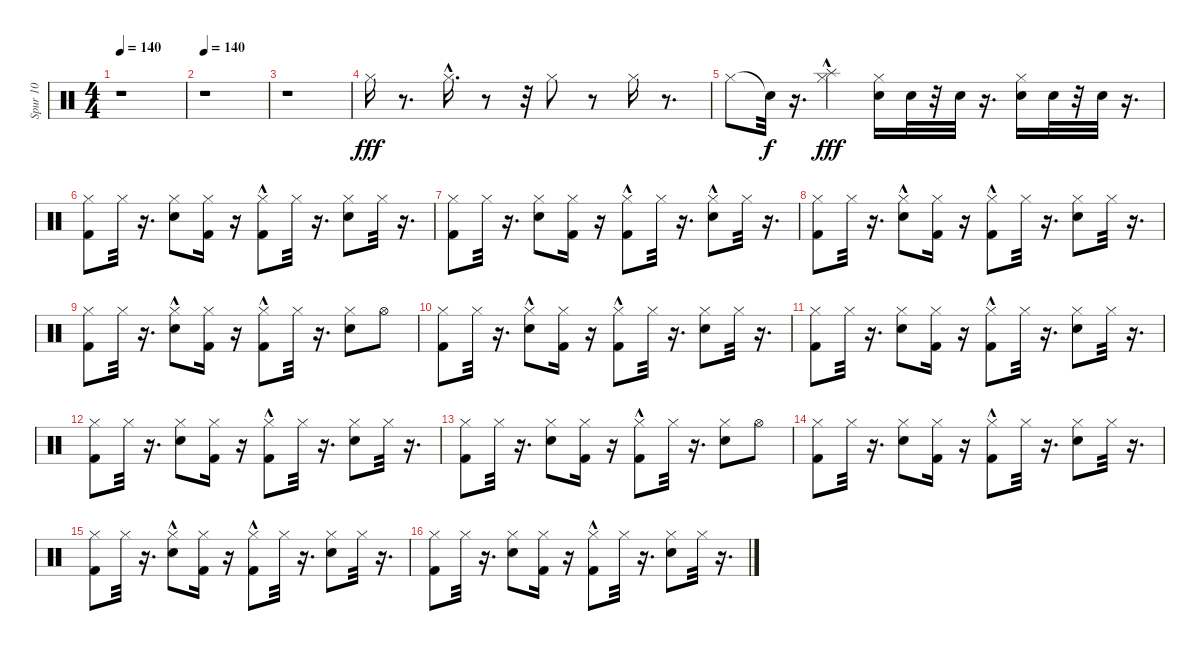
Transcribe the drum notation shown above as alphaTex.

\track ("Spur 10" "Spur 10") {instrument percussion}
\staff {score}
\articulation defaults
\ts (4 4)
\tempo 140
\clef neutral
\ks c
r.1{dy fff} |
\tempo 140
r.1 |
r.1 |
"Hi-Hat (closed)".16 r.8{d} "Hi-Hat (closed)"{hac}.16{d} r.8 r.32 "Hi-Hat (closed)".8 r.8 "Hi-Hat (closed)".16 r.8{d} |
"Hi-Hat (closed)".8 "Snare (hit)"{t}.32{dy f} r.16{d} ("Hi-Hat (closed)" "Splash (hit)"{hac}).4{dy fff} ("Snare (hit) 2" "Hi-Hat (closed)").16 "Snare (hit) 2".32 r.32 "Snare (hit) 2".32 r.16{d} ("Snare (hit) 2" "Hi-Hat (closed)").16 "Snare (hit) 2".32 r.32 "Snare (hit) 2".32 r.16{d} |
("Kick (hit) 2" "Hi-Hat (closed)").8 "Hi-Hat (closed)".32 r.16{d} ("Snare (hit) 2" "Hi-Hat (closed)").8 ("Kick (hit) 2" "Hi-Hat (closed)").16 r.16 ("Kick (hit) 2"{hac} "Hi-Hat (closed)").8 "Hi-Hat (closed)".32 r.16{d} ("Snare (hit) 2" "Hi-Hat (closed)").8 "Hi-Hat (closed)".32 r.16{d} |
("Kick (hit) 2" "Hi-Hat (closed)").8 "Hi-Hat (closed)".32 r.16{d} ("Snare (hit) 2" "Hi-Hat (closed)").8 ("Kick (hit) 2" "Hi-Hat (closed)").16 r.16 ("Kick (hit) 2"{hac} "Hi-Hat (closed)").8 "Hi-Hat (closed)".32 r.16{d} ("Snare (hit) 2"{hac} "Hi-Hat (closed)").8 "Hi-Hat (closed)".32 r.16{d} |
("Kick (hit) 2" "Hi-Hat (closed)").8 "Hi-Hat (closed)".32 r.16{d} ("Snare (hit) 2"{hac} "Hi-Hat (closed)").8 ("Kick (hit) 2" "Hi-Hat (closed)").16 r.16 ("Kick (hit) 2"{hac} "Hi-Hat (closed)").8 "Hi-Hat (closed)".32 r.16{d} ("Snare (hit) 2" "Hi-Hat (closed)").8 "Hi-Hat (closed)".32 r.16{d} |
("Kick (hit) 2" "Hi-Hat (closed)").8 "Hi-Hat (closed)".32 r.16{d} ("Snare (hit) 2"{hac} "Hi-Hat (closed)").8 ("Kick (hit) 2" "Hi-Hat (closed)").16 r.16 ("Kick (hit) 2"{hac} "Hi-Hat (closed)").8 "Hi-Hat (closed)".32 r.16{d} ("Snare (hit) 2" "Hi-Hat (closed)").8 "Hi-Hat (open)".8 |
("Kick (hit) 2" "Hi-Hat (closed)").8 "Hi-Hat (closed)".32 r.16{d} ("Snare (hit) 2"{hac} "Hi-Hat (closed)").8 ("Kick (hit) 2" "Hi-Hat (closed)").16 r.16 ("Kick (hit) 2"{hac} "Hi-Hat (closed)").8 "Hi-Hat (closed)".32 r.16{d} ("Snare (hit) 2" "Hi-Hat (closed)").8 "Hi-Hat (closed)".32 r.16{d} |
("Kick (hit) 2" "Hi-Hat (closed)").8 "Hi-Hat (closed)".32 r.16{d} ("Snare (hit) 2" "Hi-Hat (closed)").8 ("Kick (hit) 2" "Hi-Hat (closed)").16 r.16 ("Kick (hit) 2"{hac} "Hi-Hat (closed)").8 "Hi-Hat (closed)".32 r.16{d} ("Snare (hit) 2" "Hi-Hat (closed)").8 "Hi-Hat (closed)".32 r.16{d} |
("Kick (hit) 2" "Hi-Hat (closed)").8 "Hi-Hat (closed)".32 r.16{d} ("Snare (hit) 2" "Hi-Hat (closed)").8 ("Kick (hit) 2" "Hi-Hat (closed)").16 r.16 ("Kick (hit) 2"{hac} "Hi-Hat (closed)").8 "Hi-Hat (closed)".32 r.16{d} ("Snare (hit) 2" "Hi-Hat (closed)").8 "Hi-Hat (closed)".32 r.16{d} |
("Kick (hit) 2" "Hi-Hat (closed)").8 "Hi-Hat (closed)".32 r.16{d} ("Snare (hit) 2" "Hi-Hat (closed)").8 ("Kick (hit) 2" "Hi-Hat (closed)").16 r.16 ("Kick (hit) 2"{hac} "Hi-Hat (closed)").8 "Hi-Hat (closed)".32 r.16{d} ("Snare (hit) 2" "Hi-Hat (closed)").8 "Hi-Hat (open)".8 |
("Kick (hit) 2" "Hi-Hat (closed)").8 "Hi-Hat (closed)".32 r.16{d} ("Snare (hit) 2" "Hi-Hat (closed)").8 ("Kick (hit) 2" "Hi-Hat (closed)").16 r.16 ("Kick (hit) 2"{hac} "Hi-Hat (closed)").8 "Hi-Hat (closed)".32 r.16{d} ("Snare (hit) 2" "Hi-Hat (closed)").8 "Hi-Hat (closed)".32 r.16{d} |
("Kick (hit) 2" "Hi-Hat (closed)").8 "Hi-Hat (closed)".32 r.16{d} ("Snare (hit) 2"{hac} "Hi-Hat (closed)").8 ("Kick (hit) 2" "Hi-Hat (closed)").16 r.16 ("Kick (hit) 2"{hac} "Hi-Hat (closed)").8 "Hi-Hat (closed)".32 r.16{d} ("Snare (hit) 2" "Hi-Hat (closed)").8 "Hi-Hat (closed)".32 r.16{d} |
("Kick (hit) 2" "Hi-Hat (closed)").8 "Hi-Hat (closed)".32 r.16{d} ("Snare (hit) 2" "Hi-Hat (closed)").8 ("Kick (hit) 2" "Hi-Hat (closed)").16 r.16 ("Kick (hit) 2"{hac} "Hi-Hat (closed)").8 "Hi-Hat (closed)".32 r.16{d} ("Snare (hit) 2" "Hi-Hat (closed)").8 "Hi-Hat (closed)".32 r.16{d}
